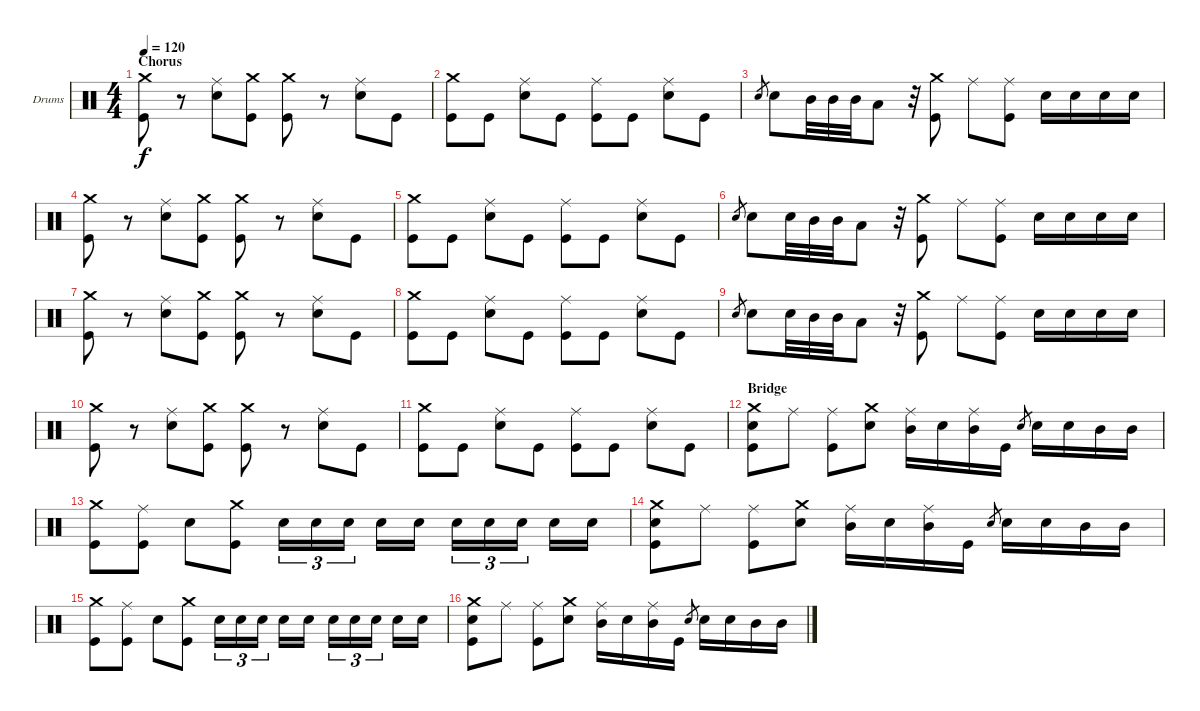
\bracketExtendMode groupsimilarinstruments
\firstSystemTrackNameOrientation horizontal
\otherSystemsTrackNameOrientation horizontal
\track ("Drums" "Drums") {instrument percussion}
\staff {score}
\articulation defaults
\ts (4 4)
\section ("" "Chorus")
\tempo 120
\clef neutral
\ks c
("Crash medium (hit)" "Kick (hit)").8{dy f} r.8 ("Ride (middle)" "Snare (hit) 2").8 ("Crash medium (hit)" "Kick (hit)").8 ("Crash medium (hit)" "Kick (hit)").8 r.8 ("Ride (middle)" "Snare (hit) 2").8 "Kick (hit)".8 |
("Crash medium (hit)" "Kick (hit)").8 "Kick (hit)".8 ("Ride (middle)" "Snare (hit) 2").8 "Kick (hit)".8 ("Ride (middle)" "Kick (hit)").8 "Kick (hit)".8 ("Ride (middle)" "Snare (hit) 2").8 "Kick (hit)".8 |
"Snare (hit) 2".8{gr} "Snare (hit) 2".8 "Mid Tom (hit)".32 "Mid Tom (hit)".32 "Mid Tom (hit)".32 "Low Tom (hit)".8 r.32 ("Kick (hit)" "Crash medium (hit)").8 "Ride (middle)".8 ("Ride (middle)" "Kick (hit)").8 "Snare (hit) 2".16 "Snare (hit) 2".16 "Snare (hit) 2".16 "Snare (hit) 2".16 |
("Crash medium (hit)" "Kick (hit)").8 r.8 ("Ride (middle)" "Snare (hit) 2").8 ("Crash medium (hit)" "Kick (hit)").8 ("Crash medium (hit)" "Kick (hit)").8 r.8 ("Ride (middle)" "Snare (hit) 2").8 "Kick (hit)".8 |
("Crash medium (hit)" "Kick (hit)").8 "Kick (hit)".8 ("Ride (middle)" "Snare (hit) 2").8 "Kick (hit)".8 ("Ride (middle)" "Kick (hit)").8 "Kick (hit)".8 ("Ride (middle)" "Snare (hit) 2").8 "Kick (hit)".8 |
"Snare (hit) 2".8{gr} "Snare (hit) 2".8 "Snare (hit) 2".32 "Mid Tom (hit)".32 "Mid Tom (hit)".32 "Low Tom (hit)".8 r.32 ("Kick (hit)" "Crash medium (hit)").8 "Ride (middle)".8 ("Ride (middle)" "Kick (hit)").8 "Snare (hit) 2".16 "Snare (hit) 2".16 "Snare (hit) 2".16 "Snare (hit) 2".16 |
("Crash medium (hit)" "Kick (hit)").8 r.8 ("Ride (middle)" "Snare (hit) 2").8 ("Crash medium (hit)" "Kick (hit)").8 ("Crash medium (hit)" "Kick (hit)").8 r.8 ("Ride (middle)" "Snare (hit) 2").8 "Kick (hit)".8 |
("Crash medium (hit)" "Kick (hit)").8 "Kick (hit)".8 ("Ride (middle)" "Snare (hit) 2").8 "Kick (hit)".8 ("Ride (middle)" "Kick (hit)").8 "Kick (hit)".8 ("Ride (middle)" "Snare (hit) 2").8 "Kick (hit)".8 |
"Snare (hit) 2".8{gr} "Snare (hit) 2".8 "Snare (hit) 2".32 "Mid Tom (hit)".32 "Mid Tom (hit)".32 "Low Tom (hit)".8 r.32 ("Kick (hit)" "Crash medium (hit)").8 "Ride (middle)".8 ("Ride (middle)" "Kick (hit)").8 "Snare (hit) 2".16 "Snare (hit) 2".16 "Snare (hit) 2".16 "Snare (hit) 2".16 |
("Crash medium (hit)" "Kick (hit)").8 r.8 ("Ride (middle)" "Snare (hit) 2").8 ("Crash medium (hit)" "Kick (hit)").8 ("Crash medium (hit)" "Kick (hit)").8 r.8 ("Ride (middle)" "Snare (hit) 2").8 "Kick (hit)".8 |
("Crash medium (hit)" "Kick (hit)").8 "Kick (hit)".8 ("Ride (middle)" "Snare (hit) 2").8 "Kick (hit)".8 ("Ride (middle)" "Kick (hit)").8 "Kick (hit)".8 ("Ride (middle)" "Snare (hit) 2").8 "Kick (hit)".8 |
\section ("" "Bridge")
("Kick (hit)" "Snare (hit) 2" "Crash medium (hit)").8 "Ride (middle)".8 ("Kick (hit)" "Ride (middle)").8 ("Snare (hit) 2" "Crash medium (hit)").8 ("Ride (middle)" "Mid Tom (hit)").16 "Snare (hit) 2".16 ("Mid Tom (hit)" "Ride (middle)").16 "Kick (hit)".16 "Snare (hit) 2".8{gr} "Snare (hit) 2".16 "Snare (hit) 2".16 "Mid Tom (hit)".16 "Mid Tom (hit)".16 |
("Kick (hit)" "Crash medium (hit)").8 ("Kick (hit)" "Ride (middle)").8 "Snare (hit) 2".8 ("Kick (hit)" "Crash medium (hit)").8 "Snare (hit) 2".16{tu (3 2)} "Snare (hit) 2".16{tu (3 2)} "Snare (hit) 2".16{tu (3 2)} "Snare (hit) 2".16 "Snare (hit) 2".16 "Snare (hit) 2".16{tu (3 2)} "Snare (hit) 2".16{tu (3 2)} "Snare (hit) 2".16{tu (3 2)} "Snare (hit) 2".16 "Snare (hit) 2".16 |
("Kick (hit)" "Snare (hit) 2" "Crash medium (hit)").8 "Ride (middle)".8 ("Kick (hit)" "Ride (middle)").8 ("Snare (hit) 2" "Crash medium (hit)").8 ("Ride (middle)" "Mid Tom (hit)").16 "Snare (hit) 2".16 ("Mid Tom (hit)" "Ride (middle)").16 "Kick (hit)".16 "Snare (hit) 2".8{gr} "Snare (hit) 2".16 "Snare (hit) 2".16 "Mid Tom (hit)".16 "Mid Tom (hit)".16 |
("Kick (hit)" "Crash medium (hit)").8 ("Kick (hit)" "Ride (middle)").8 "Snare (hit) 2".8 ("Kick (hit)" "Crash medium (hit)").8 "Snare (hit) 2".16{tu (3 2)} "Snare (hit) 2".16{tu (3 2)} "Snare (hit) 2".16{tu (3 2)} "Snare (hit) 2".16 "Snare (hit) 2".16 "Snare (hit) 2".16{tu (3 2)} "Snare (hit) 2".16{tu (3 2)} "Snare (hit) 2".16{tu (3 2)} "Snare (hit) 2".16 "Snare (hit) 2".16 |
("Kick (hit)" "Snare (hit) 2" "Crash medium (hit)").8 "Ride (middle)".8 ("Kick (hit)" "Ride (middle)").8 ("Snare (hit) 2" "Crash medium (hit)").8 ("Ride (middle)" "Mid Tom (hit)").16 "Snare (hit) 2".16 ("Mid Tom (hit)" "Ride (middle)").16 "Kick (hit)".16 "Snare (hit) 2".8{gr} "Snare (hit) 2".16 "Snare (hit) 2".16 "Mid Tom (hit)".16 "Mid Tom (hit)".16
